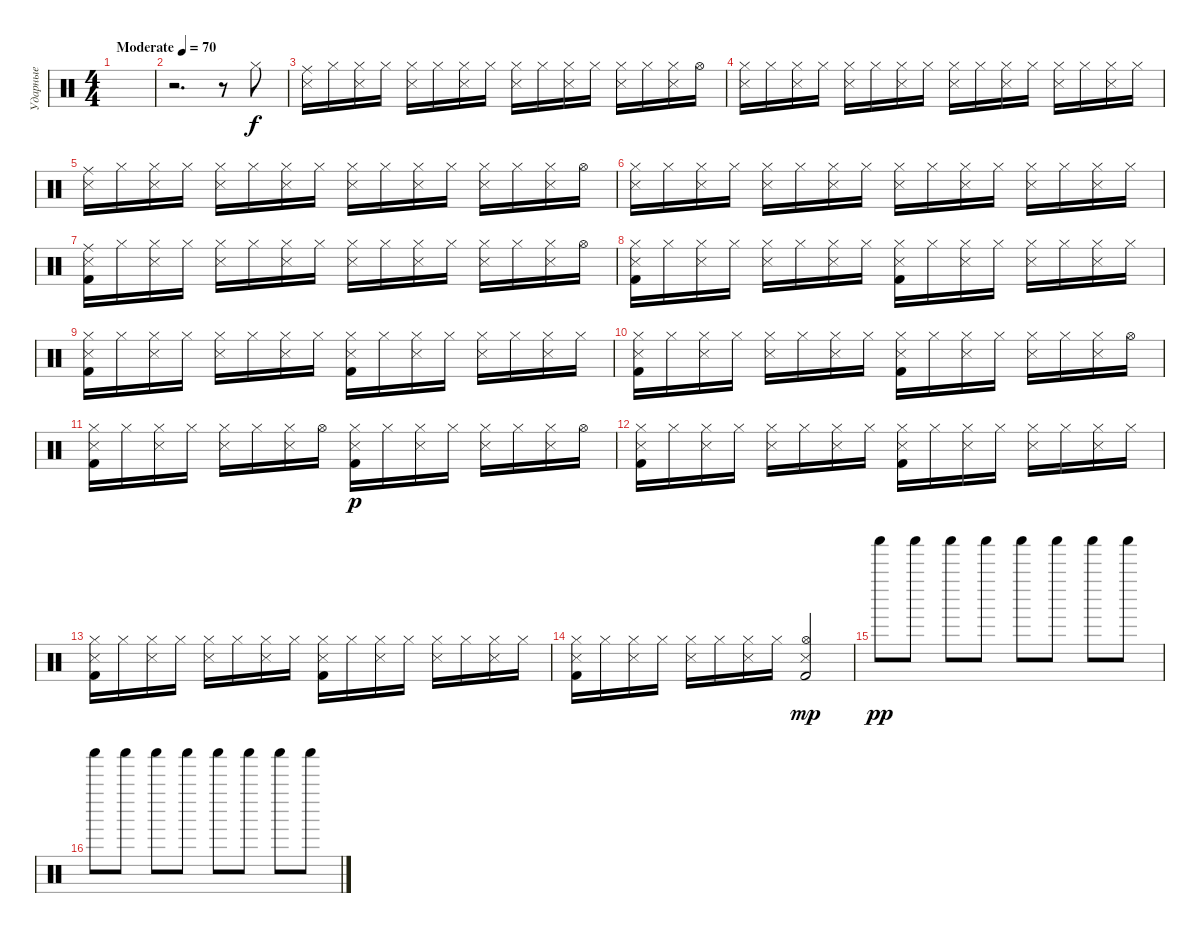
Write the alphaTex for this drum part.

\track ("Ударные" "Ударные") {instrument percussion}
\staff {score}
\articulation defaults
\ts (4 4)
\tempo (70 "Moderate")
\clef neutral
\ks c
|
r.2{d} r.8 "Hi-Hat (closed)".8 |
("Ride (middle)" "Snare (side stick) 3").16 "Hi-Hat (closed)".16 ("Hi-Hat (closed)" "Snare (side stick) 3").16 "Hi-Hat (closed)".16 ("Hi-Hat (closed)" "Snare (side stick) 3").16 "Hi-Hat (closed)".16 ("Hi-Hat (closed)" "Snare (side stick) 3").16 "Hi-Hat (closed)".16 ("Hi-Hat (closed)" "Snare (side stick) 3").16 "Hi-Hat (closed)".16 ("Hi-Hat (closed)" "Snare (side stick) 3").16 "Hi-Hat (closed)".16 ("Hi-Hat (closed)" "Snare (side stick) 3").16 "Hi-Hat (closed)".16 ("Hi-Hat (closed)" "Snare (side stick) 3").16 "Hi-Hat (open)".16 |
("Hi-Hat (closed)" "Snare (side stick) 3").16 "Hi-Hat (closed)".16 ("Hi-Hat (closed)" "Snare (side stick) 3").16 "Hi-Hat (closed)".16 ("Hi-Hat (closed)" "Snare (side stick) 3").16 "Hi-Hat (closed)".16 ("Hi-Hat (closed)" "Snare (side stick) 3").16 "Hi-Hat (closed)".16 ("Hi-Hat (closed)" "Snare (side stick) 3").16 "Hi-Hat (closed)".16 ("Hi-Hat (closed)" "Snare (side stick) 3").16 "Hi-Hat (closed)".16 ("Hi-Hat (closed)" "Snare (side stick) 3").16 "Hi-Hat (closed)".16 ("Hi-Hat (closed)" "Snare (side stick) 3").16 "Hi-Hat (closed)".16 |
("Ride (middle)" "Snare (side stick) 3").16 "Hi-Hat (closed)".16 ("Hi-Hat (closed)" "Snare (side stick) 3").16 "Hi-Hat (closed)".16 ("Hi-Hat (closed)" "Snare (side stick) 3").16 "Hi-Hat (closed)".16 ("Hi-Hat (closed)" "Snare (side stick) 3").16 "Hi-Hat (closed)".16 ("Hi-Hat (closed)" "Snare (side stick) 3").16 "Hi-Hat (closed)".16 ("Hi-Hat (closed)" "Snare (side stick) 3").16 "Hi-Hat (closed)".16 ("Hi-Hat (closed)" "Snare (side stick) 3").16 "Hi-Hat (closed)".16 ("Hi-Hat (closed)" "Snare (side stick) 3").16 "Hi-Hat (open)".16 |
("Hi-Hat (closed)" "Snare (side stick) 3").16 "Hi-Hat (closed)".16 ("Hi-Hat (closed)" "Snare (side stick) 3").16 "Hi-Hat (closed)".16 ("Hi-Hat (closed)" "Snare (side stick) 3").16 "Hi-Hat (closed)".16 ("Hi-Hat (closed)" "Snare (side stick) 3").16 "Hi-Hat (closed)".16 ("Hi-Hat (closed)" "Snare (side stick) 3").16 "Hi-Hat (closed)".16 ("Hi-Hat (closed)" "Snare (side stick) 3").16 "Hi-Hat (closed)".16 ("Hi-Hat (closed)" "Snare (side stick) 3").16 "Hi-Hat (closed)".16 ("Hi-Hat (closed)" "Snare (side stick) 3").16 "Hi-Hat (closed)".16 |
("Ride (middle)" "Snare (side stick) 3" "Kick (hit) 2").16 "Hi-Hat (closed)".16 ("Hi-Hat (closed)" "Snare (side stick) 3").16 "Hi-Hat (closed)".16 ("Hi-Hat (closed)" "Snare (side stick) 3").16 "Hi-Hat (closed)".16 ("Hi-Hat (closed)" "Snare (side stick) 3").16 "Hi-Hat (closed)".16 ("Hi-Hat (closed)" "Snare (side stick) 3").16 "Hi-Hat (closed)".16 ("Hi-Hat (closed)" "Snare (side stick) 3").16 "Hi-Hat (closed)".16 ("Hi-Hat (closed)" "Snare (side stick) 3").16 "Hi-Hat (closed)".16 ("Hi-Hat (closed)" "Snare (side stick) 3").16 "Hi-Hat (open)".16 |
("Hi-Hat (closed)" "Snare (side stick) 3" "Kick (hit) 2").16 "Hi-Hat (closed)".16 ("Hi-Hat (closed)" "Snare (side stick) 3").16 "Hi-Hat (closed)".16 ("Hi-Hat (closed)" "Snare (side stick) 3").16 "Hi-Hat (closed)".16 ("Hi-Hat (closed)" "Snare (side stick) 3").16 "Hi-Hat (closed)".16 ("Hi-Hat (closed)" "Snare (side stick) 3" "Kick (hit) 2").16 "Hi-Hat (closed)".16 ("Hi-Hat (closed)" "Snare (side stick) 3").16 "Hi-Hat (closed)".16 ("Hi-Hat (closed)" "Snare (side stick) 3").16 "Hi-Hat (closed)".16 ("Hi-Hat (closed)" "Snare (side stick) 3").16 "Hi-Hat (closed)".16 |
("Hi-Hat (closed)" "Snare (side stick) 3" "Kick (hit) 2").16 "Hi-Hat (closed)".16 ("Hi-Hat (closed)" "Snare (side stick) 3").16 "Hi-Hat (closed)".16 ("Hi-Hat (closed)" "Snare (side stick) 3").16 "Hi-Hat (closed)".16 ("Hi-Hat (closed)" "Snare (side stick) 3").16 "Hi-Hat (closed)".16 ("Hi-Hat (closed)" "Snare (side stick) 3" "Kick (hit) 2").16 "Hi-Hat (closed)".16 ("Hi-Hat (closed)" "Snare (side stick) 3").16 "Hi-Hat (closed)".16 ("Hi-Hat (closed)" "Snare (side stick) 3").16 "Hi-Hat (closed)".16 ("Hi-Hat (closed)" "Snare (side stick) 3").16 "Hi-Hat (closed)".16 |
("Hi-Hat (closed)" "Snare (side stick) 3" "Kick (hit) 2").16 "Hi-Hat (closed)".16 ("Hi-Hat (closed)" "Snare (side stick) 3").16 "Hi-Hat (closed)".16 ("Hi-Hat (closed)" "Snare (side stick) 3").16 "Hi-Hat (closed)".16 ("Hi-Hat (closed)" "Snare (side stick) 3").16 "Hi-Hat (closed)".16 ("Hi-Hat (closed)" "Snare (side stick) 3" "Kick (hit) 2").16 "Hi-Hat (closed)".16 ("Hi-Hat (closed)" "Snare (side stick) 3").16 "Hi-Hat (closed)".16 ("Hi-Hat (closed)" "Snare (side stick) 3").16 "Hi-Hat (closed)".16 ("Hi-Hat (closed)" "Snare (side stick) 3").16 "Hi-Hat (open)".16 |
("Hi-Hat (closed)" "Snare (side stick) 3" "Kick (hit) 2").16 "Hi-Hat (closed)".16 ("Hi-Hat (closed)" "Snare (side stick) 3").16 "Hi-Hat (closed)".16 ("Hi-Hat (closed)" "Snare (side stick) 3").16 "Hi-Hat (closed)".16 ("Hi-Hat (closed)" "Snare (side stick) 3").16 "Hi-Hat (open)".16{dy f} ("Hi-Hat (closed)" "Snare (side stick) 3" "Kick (hit) 2").16{dy p} "Hi-Hat (closed)".16 ("Hi-Hat (closed)" "Snare (side stick) 3").16 "Hi-Hat (closed)".16 ("Hi-Hat (closed)" "Snare (side stick) 3").16 "Hi-Hat (closed)".16 ("Hi-Hat (closed)" "Snare (side stick) 3").16 "Hi-Hat (open)".16 |
("Hi-Hat (closed)" "Snare (side stick) 3" "Kick (hit) 2").16 "Hi-Hat (closed)".16 ("Hi-Hat (closed)" "Snare (side stick) 3").16 "Hi-Hat (closed)".16 ("Hi-Hat (closed)" "Snare (side stick) 3").16 "Hi-Hat (closed)".16 ("Hi-Hat (closed)" "Snare (side stick) 3").16 "Hi-Hat (closed)".16 ("Hi-Hat (closed)" "Snare (side stick) 3" "Kick (hit) 2").16 "Hi-Hat (closed)".16 ("Hi-Hat (closed)" "Snare (side stick) 3").16 "Hi-Hat (closed)".16 ("Hi-Hat (closed)" "Snare (side stick) 3").16 "Hi-Hat (closed)".16 ("Hi-Hat (closed)" "Snare (side stick) 3").16 "Hi-Hat (closed)".16 |
("Hi-Hat (closed)" "Snare (side stick) 3" "Kick (hit) 2").16 "Hi-Hat (closed)".16 ("Hi-Hat (closed)" "Snare (side stick) 3").16 "Hi-Hat (closed)".16 ("Hi-Hat (closed)" "Snare (side stick) 3").16 "Hi-Hat (closed)".16 ("Hi-Hat (closed)" "Snare (side stick) 3").16 "Hi-Hat (closed)".16 ("Hi-Hat (closed)" "Snare (side stick) 3" "Kick (hit) 2").16 "Hi-Hat (closed)".16 ("Hi-Hat (closed)" "Snare (side stick) 3").16 "Hi-Hat (closed)".16 ("Hi-Hat (closed)" "Snare (side stick) 3").16 "Hi-Hat (closed)".16 ("Hi-Hat (closed)" "Snare (side stick) 3").16 "Hi-Hat (closed)".16 |
("Hi-Hat (closed)" "Snare (side stick) 3" "Kick (hit) 2").16 "Hi-Hat (closed)".16 ("Hi-Hat (closed)" "Snare (side stick) 3").16 "Hi-Hat (closed)".16 ("Hi-Hat (closed)" "Snare (side stick) 3").16 "Hi-Hat (closed)".16 ("Hi-Hat (closed)" "Snare (side stick) 3").16 "Hi-Hat (closed)".16 ("Hi-Hat (open)" "Snare (side stick) 3" "Kick (hit) 2").2{dy mp} |
"Shaker (hit)".8{dy pp} "Shaker (hit)".8 "Shaker (hit)".8 "Shaker (hit)".8 "Shaker (hit)".8 "Shaker (hit)".8 "Shaker (hit)".8 "Shaker (hit)".8 |
"Shaker (hit)".8 "Shaker (hit)".8 "Shaker (hit)".8 "Shaker (hit)".8 "Shaker (hit)".8 "Shaker (hit)".8 "Shaker (hit)".8 "Shaker (hit)".8
